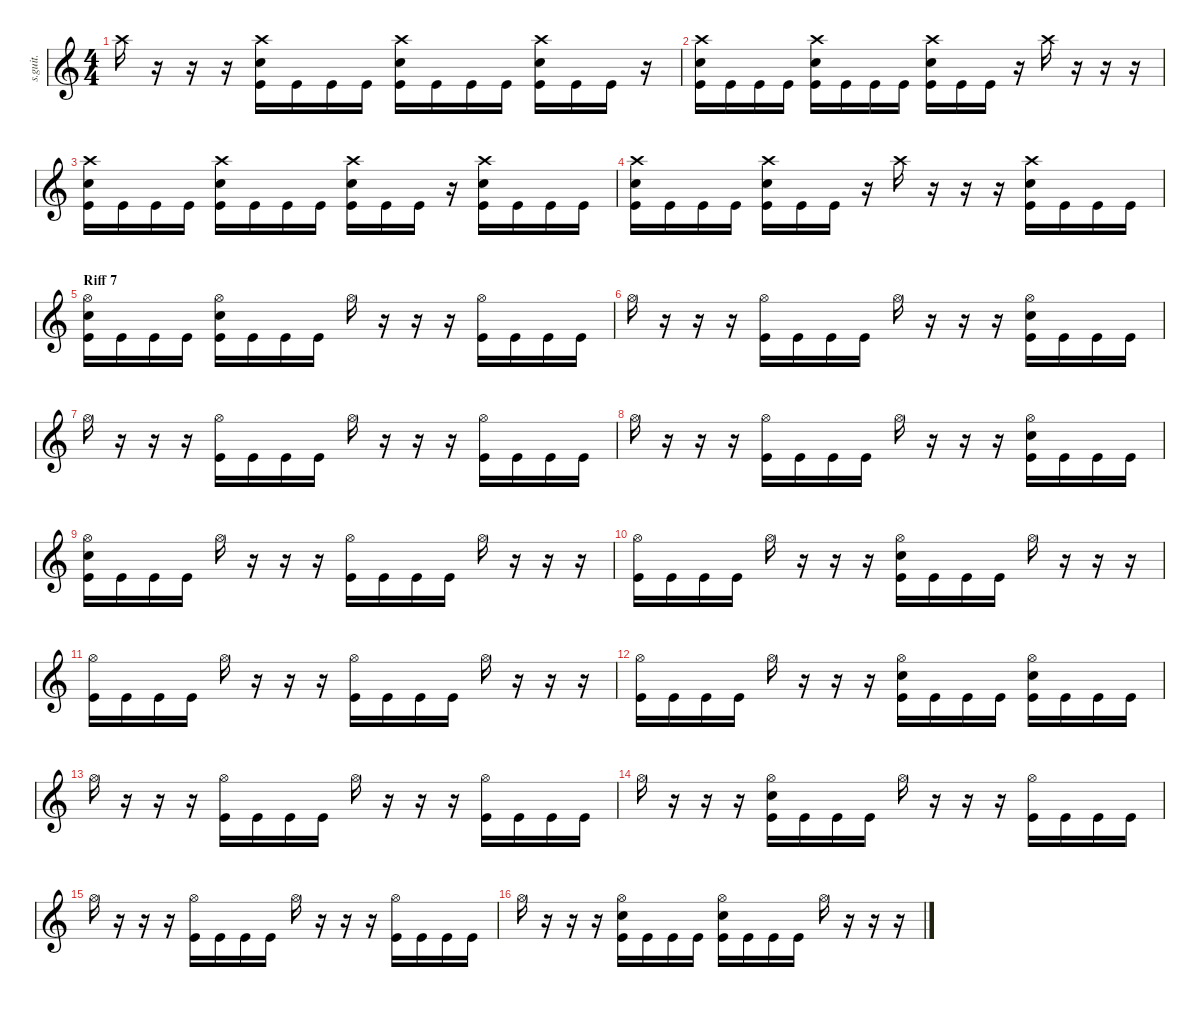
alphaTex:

\defaultSystemsLayout 4
\hideDynamics
\bracketExtendMode nobrackets
\track ("Drumkit" "s.guit.") {instrument percussion}
\staff {score}
\articulation defaults
\ts (4 4)
\tempo (133 hide)
\clef g2
\ks c "Crash high (hit)".16{lyrics (0 "") lyrics (1 "") lyrics (2 "") lyrics (3 "") lyrics (4 "") dy f}
r.16 r.16 r.16 ("Crash high (hit)" "Snare (hit) 2" "Kick (hit)").16{lyrics (0 "") lyrics (1 "") lyrics (2 "") lyrics (3 "") lyrics (4 "")} "Kick (hit)".16{lyrics (0 "") lyrics (1 "") lyrics (2 "") lyrics (3 "") lyrics (4 "")} "Kick (hit)".16{lyrics (0 "") lyrics (1 "") lyrics (2 "") lyrics (3 "") lyrics (4 "")} "Kick (hit)".16{lyrics (0 "") lyrics (1 "") lyrics (2 "") lyrics (3 "") lyrics (4 "")} ("Crash high (hit)" "Snare (hit) 2" "Kick (hit)").16{lyrics (0 "") lyrics (1 "") lyrics (2 "") lyrics (3 "") lyrics (4 "")} "Kick (hit)".16{lyrics (0 "") lyrics (1 "") lyrics (2 "") lyrics (3 "") lyrics (4 "")} "Kick (hit)".16{lyrics (0 "") lyrics (1 "") lyrics (2 "") lyrics (3 "") lyrics (4 "")} "Kick (hit)".16{lyrics (0 "") lyrics (1 "") lyrics (2 "") lyrics (3 "") lyrics (4 "")} ("Crash high (hit)" "Snare (hit) 2" "Kick (hit)").16{lyrics (0 "") lyrics (1 "") lyrics (2 "") lyrics (3 "") lyrics (4 "")} "Kick (hit)".16{lyrics (0 "") lyrics (1 "") lyrics (2 "") lyrics (3 "") lyrics (4 "")} "Kick (hit)".16{lyrics (0 "") lyrics (1 "") lyrics (2 "") lyrics (3 "") lyrics (4 "")} r.16 |
("Crash high (hit)" "Snare (hit) 2" "Kick (hit)").16{lyrics (0 "") lyrics (1 "") lyrics (2 "") lyrics (3 "") lyrics (4 "")} "Kick (hit)".16{lyrics (0 "") lyrics (1 "") lyrics (2 "") lyrics (3 "") lyrics (4 "")} "Kick (hit)".16{lyrics (0 "") lyrics (1 "") lyrics (2 "") lyrics (3 "") lyrics (4 "")} "Kick (hit)".16{lyrics (0 "") lyrics (1 "") lyrics (2 "") lyrics (3 "") lyrics (4 "")} ("Crash high (hit)" "Snare (hit) 2" "Kick (hit)").16{lyrics (0 "") lyrics (1 "") lyrics (2 "") lyrics (3 "") lyrics (4 "")} "Kick (hit)".16{lyrics (0 "") lyrics (1 "") lyrics (2 "") lyrics (3 "") lyrics (4 "")} "Kick (hit)".16{lyrics (0 "") lyrics (1 "") lyrics (2 "") lyrics (3 "") lyrics (4 "")} "Kick (hit)".16{lyrics (0 "") lyrics (1 "") lyrics (2 "") lyrics (3 "") lyrics (4 "")} ("Crash high (hit)" "Snare (hit) 2" "Kick (hit)").16{lyrics (0 "") lyrics (1 "") lyrics (2 "") lyrics (3 "") lyrics (4 "")} "Kick (hit)".16{lyrics (0 "") lyrics (1 "") lyrics (2 "") lyrics (3 "") lyrics (4 "")} "Kick (hit)".16{lyrics (0 "") lyrics (1 "") lyrics (2 "") lyrics (3 "") lyrics (4 "")} r.16 "Crash high (hit)".16{lyrics (0 "") lyrics (1 "") lyrics (2 "") lyrics (3 "") lyrics (4 "")} r.16 r.16 r.16 |
("Crash high (hit)" "Snare (hit) 2" "Kick (hit)").16{lyrics (0 "") lyrics (1 "") lyrics (2 "") lyrics (3 "") lyrics (4 "")} "Kick (hit)".16{lyrics (0 "") lyrics (1 "") lyrics (2 "") lyrics (3 "") lyrics (4 "")} "Kick (hit)".16{lyrics (0 "") lyrics (1 "") lyrics (2 "") lyrics (3 "") lyrics (4 "")} "Kick (hit)".16{lyrics (0 "") lyrics (1 "") lyrics (2 "") lyrics (3 "") lyrics (4 "")} ("Crash high (hit)" "Snare (hit) 2" "Kick (hit)").16{lyrics (0 "") lyrics (1 "") lyrics (2 "") lyrics (3 "") lyrics (4 "")} "Kick (hit)".16{lyrics (0 "") lyrics (1 "") lyrics (2 "") lyrics (3 "") lyrics (4 "")} "Kick (hit)".16{lyrics (0 "") lyrics (1 "") lyrics (2 "") lyrics (3 "") lyrics (4 "")} "Kick (hit)".16{lyrics (0 "") lyrics (1 "") lyrics (2 "") lyrics (3 "") lyrics (4 "")} ("Crash high (hit)" "Snare (hit) 2" "Kick (hit)").16{lyrics (0 "") lyrics (1 "") lyrics (2 "") lyrics (3 "") lyrics (4 "")} "Kick (hit)".16{lyrics (0 "") lyrics (1 "") lyrics (2 "") lyrics (3 "") lyrics (4 "")} "Kick (hit)".16{lyrics (0 "") lyrics (1 "") lyrics (2 "") lyrics (3 "") lyrics (4 "")} r.16 ("Crash high (hit)" "Snare (hit) 2" "Kick (hit)").16{lyrics (0 "") lyrics (1 "") lyrics (2 "") lyrics (3 "") lyrics (4 "")} "Kick (hit)".16{lyrics (0 "") lyrics (1 "") lyrics (2 "") lyrics (3 "") lyrics (4 "")} "Kick (hit)".16{lyrics (0 "") lyrics (1 "") lyrics (2 "") lyrics (3 "") lyrics (4 "")} "Kick (hit)".16{lyrics (0 "") lyrics (1 "") lyrics (2 "") lyrics (3 "") lyrics (4 "")} |
("Crash high (hit)" "Snare (hit) 2" "Kick (hit)").16{lyrics (0 "") lyrics (1 "") lyrics (2 "") lyrics (3 "") lyrics (4 "")} "Kick (hit)".16{lyrics (0 "") lyrics (1 "") lyrics (2 "") lyrics (3 "") lyrics (4 "")} "Kick (hit)".16{lyrics (0 "") lyrics (1 "") lyrics (2 "") lyrics (3 "") lyrics (4 "")} "Kick (hit)".16{lyrics (0 "") lyrics (1 "") lyrics (2 "") lyrics (3 "") lyrics (4 "")} ("Crash high (hit)" "Snare (hit) 2" "Kick (hit)").16{lyrics (0 "") lyrics (1 "") lyrics (2 "") lyrics (3 "") lyrics (4 "")} "Kick (hit)".16{lyrics (0 "") lyrics (1 "") lyrics (2 "") lyrics (3 "") lyrics (4 "")} "Kick (hit)".16{lyrics (0 "") lyrics (1 "") lyrics (2 "") lyrics (3 "") lyrics (4 "")} r.16 "Crash high (hit)".16{lyrics (0 "") lyrics (1 "") lyrics (2 "") lyrics (3 "") lyrics (4 "")} r.16 r.16 r.16 ("Crash high (hit)" "Snare (hit) 2" "Kick (hit)").16{lyrics (0 "") lyrics (1 "") lyrics (2 "") lyrics (3 "") lyrics (4 "")} "Kick (hit)".16{lyrics (0 "") lyrics (1 "") lyrics (2 "") lyrics (3 "") lyrics (4 "")} "Kick (hit)".16{lyrics (0 "") lyrics (1 "") lyrics (2 "") lyrics (3 "") lyrics (4 "")} "Kick (hit)".16{lyrics (0 "") lyrics (1 "") lyrics (2 "") lyrics (3 "") lyrics (4 "")} |
\section ("" "Riff 7")
("Hi-Hat (open)" "Snare (hit) 2" "Kick (hit)").16{lyrics (0 "") lyrics (1 "") lyrics (2 "") lyrics (3 "") lyrics (4 "")} "Kick (hit)".16{lyrics (0 "") lyrics (1 "") lyrics (2 "") lyrics (3 "") lyrics (4 "")} "Kick (hit)".16{lyrics (0 "") lyrics (1 "") lyrics (2 "") lyrics (3 "") lyrics (4 "")} "Kick (hit)".16{lyrics (0 "") lyrics (1 "") lyrics (2 "") lyrics (3 "") lyrics (4 "")} ("Hi-Hat (open)" "Snare (hit) 2" "Kick (hit)").16{lyrics (0 "") lyrics (1 "") lyrics (2 "") lyrics (3 "") lyrics (4 "")} "Kick (hit)".16{lyrics (0 "") lyrics (1 "") lyrics (2 "") lyrics (3 "") lyrics (4 "")} "Kick (hit)".16{lyrics (0 "") lyrics (1 "") lyrics (2 "") lyrics (3 "") lyrics (4 "")} "Kick (hit)".16{lyrics (0 "") lyrics (1 "") lyrics (2 "") lyrics (3 "") lyrics (4 "")} "Hi-Hat (open)".16{lyrics (0 "") lyrics (1 "") lyrics (2 "") lyrics (3 "") lyrics (4 "")} r.16 r.16 r.16 ("Hi-Hat (open)" "Kick (hit)").16{lyrics (0 "") lyrics (1 "") lyrics (2 "") lyrics (3 "") lyrics (4 "")} "Kick (hit)".16{lyrics (0 "") lyrics (1 "") lyrics (2 "") lyrics (3 "") lyrics (4 "")} "Kick (hit)".16{lyrics (0 "") lyrics (1 "") lyrics (2 "") lyrics (3 "") lyrics (4 "")} "Kick (hit)".16{lyrics (0 "") lyrics (1 "") lyrics (2 "") lyrics (3 "") lyrics (4 "")} |
"Hi-Hat (open)".16{lyrics (0 "") lyrics (1 "") lyrics (2 "") lyrics (3 "") lyrics (4 "")} r.16 r.16 r.16 ("Hi-Hat (open)" "Kick (hit)").16{lyrics (0 "") lyrics (1 "") lyrics (2 "") lyrics (3 "") lyrics (4 "")} "Kick (hit)".16{lyrics (0 "") lyrics (1 "") lyrics (2 "") lyrics (3 "") lyrics (4 "")} "Kick (hit)".16{lyrics (0 "") lyrics (1 "") lyrics (2 "") lyrics (3 "") lyrics (4 "")} "Kick (hit)".16{lyrics (0 "") lyrics (1 "") lyrics (2 "") lyrics (3 "") lyrics (4 "")} "Hi-Hat (open)".16{lyrics (0 "") lyrics (1 "") lyrics (2 "") lyrics (3 "") lyrics (4 "")} r.16 r.16 r.16 ("Hi-Hat (open)" "Snare (hit) 2" "Kick (hit)").16{lyrics (0 "") lyrics (1 "") lyrics (2 "") lyrics (3 "") lyrics (4 "")} "Kick (hit)".16{lyrics (0 "") lyrics (1 "") lyrics (2 "") lyrics (3 "") lyrics (4 "")} "Kick (hit)".16{lyrics (0 "") lyrics (1 "") lyrics (2 "") lyrics (3 "") lyrics (4 "")} "Kick (hit)".16{lyrics (0 "") lyrics (1 "") lyrics (2 "") lyrics (3 "") lyrics (4 "")} |
"Hi-Hat (open)".16{lyrics (0 "") lyrics (1 "") lyrics (2 "") lyrics (3 "") lyrics (4 "")} r.16 r.16 r.16 ("Hi-Hat (open)" "Kick (hit)").16{lyrics (0 "") lyrics (1 "") lyrics (2 "") lyrics (3 "") lyrics (4 "")} "Kick (hit)".16{lyrics (0 "") lyrics (1 "") lyrics (2 "") lyrics (3 "") lyrics (4 "")} "Kick (hit)".16{lyrics (0 "") lyrics (1 "") lyrics (2 "") lyrics (3 "") lyrics (4 "")} "Kick (hit)".16{lyrics (0 "") lyrics (1 "") lyrics (2 "") lyrics (3 "") lyrics (4 "")} "Hi-Hat (open)".16{lyrics (0 "") lyrics (1 "") lyrics (2 "") lyrics (3 "") lyrics (4 "")} r.16 r.16 r.16 ("Hi-Hat (open)" "Kick (hit)").16{lyrics (0 "") lyrics (1 "") lyrics (2 "") lyrics (3 "") lyrics (4 "")} "Kick (hit)".16{lyrics (0 "") lyrics (1 "") lyrics (2 "") lyrics (3 "") lyrics (4 "")} "Kick (hit)".16{lyrics (0 "") lyrics (1 "") lyrics (2 "") lyrics (3 "") lyrics (4 "")} "Kick (hit)".16{lyrics (0 "") lyrics (1 "") lyrics (2 "") lyrics (3 "") lyrics (4 "")} |
"Hi-Hat (open)".16{lyrics (0 "") lyrics (1 "") lyrics (2 "") lyrics (3 "") lyrics (4 "")} r.16 r.16 r.16 ("Hi-Hat (open)" "Kick (hit)").16{lyrics (0 "") lyrics (1 "") lyrics (2 "") lyrics (3 "") lyrics (4 "")} "Kick (hit)".16{lyrics (0 "") lyrics (1 "") lyrics (2 "") lyrics (3 "") lyrics (4 "")} "Kick (hit)".16{lyrics (0 "") lyrics (1 "") lyrics (2 "") lyrics (3 "") lyrics (4 "")} "Kick (hit)".16{lyrics (0 "") lyrics (1 "") lyrics (2 "") lyrics (3 "") lyrics (4 "")} "Hi-Hat (open)".16{lyrics (0 "") lyrics (1 "") lyrics (2 "") lyrics (3 "") lyrics (4 "")} r.16 r.16 r.16 ("Hi-Hat (open)" "Snare (hit) 2" "Kick (hit)").16{lyrics (0 "") lyrics (1 "") lyrics (2 "") lyrics (3 "") lyrics (4 "")} "Kick (hit)".16{lyrics (0 "") lyrics (1 "") lyrics (2 "") lyrics (3 "") lyrics (4 "")} "Kick (hit)".16{lyrics (0 "") lyrics (1 "") lyrics (2 "") lyrics (3 "") lyrics (4 "")} "Kick (hit)".16{lyrics (0 "") lyrics (1 "") lyrics (2 "") lyrics (3 "") lyrics (4 "")} |
("Hi-Hat (open)" "Snare (hit) 2" "Kick (hit)").16{lyrics (0 "") lyrics (1 "") lyrics (2 "") lyrics (3 "") lyrics (4 "")} "Kick (hit)".16{lyrics (0 "") lyrics (1 "") lyrics (2 "") lyrics (3 "") lyrics (4 "")} "Kick (hit)".16{lyrics (0 "") lyrics (1 "") lyrics (2 "") lyrics (3 "") lyrics (4 "")} "Kick (hit)".16{lyrics (0 "") lyrics (1 "") lyrics (2 "") lyrics (3 "") lyrics (4 "")} "Hi-Hat (open)".16{lyrics (0 "") lyrics (1 "") lyrics (2 "") lyrics (3 "") lyrics (4 "")} r.16 r.16 r.16 ("Hi-Hat (open)" "Kick (hit)").16{lyrics (0 "") lyrics (1 "") lyrics (2 "") lyrics (3 "") lyrics (4 "")} "Kick (hit)".16{lyrics (0 "") lyrics (1 "") lyrics (2 "") lyrics (3 "") lyrics (4 "")} "Kick (hit)".16{lyrics (0 "") lyrics (1 "") lyrics (2 "") lyrics (3 "") lyrics (4 "")} "Kick (hit)".16{lyrics (0 "") lyrics (1 "") lyrics (2 "") lyrics (3 "") lyrics (4 "")} "Hi-Hat (open)".16{lyrics (0 "") lyrics (1 "") lyrics (2 "") lyrics (3 "") lyrics (4 "")} r.16 r.16 r.16 |
("Hi-Hat (open)" "Kick (hit)").16{lyrics (0 "") lyrics (1 "") lyrics (2 "") lyrics (3 "") lyrics (4 "")} "Kick (hit)".16{lyrics (0 "") lyrics (1 "") lyrics (2 "") lyrics (3 "") lyrics (4 "")} "Kick (hit)".16{lyrics (0 "") lyrics (1 "") lyrics (2 "") lyrics (3 "") lyrics (4 "")} "Kick (hit)".16{lyrics (0 "") lyrics (1 "") lyrics (2 "") lyrics (3 "") lyrics (4 "")} "Hi-Hat (open)".16{lyrics (0 "") lyrics (1 "") lyrics (2 "") lyrics (3 "") lyrics (4 "")} r.16 r.16 r.16 ("Hi-Hat (open)" "Snare (hit) 2" "Kick (hit)").16{lyrics (0 "") lyrics (1 "") lyrics (2 "") lyrics (3 "") lyrics (4 "")} "Kick (hit)".16{lyrics (0 "") lyrics (1 "") lyrics (2 "") lyrics (3 "") lyrics (4 "")} "Kick (hit)".16{lyrics (0 "") lyrics (1 "") lyrics (2 "") lyrics (3 "") lyrics (4 "")} "Kick (hit)".16{lyrics (0 "") lyrics (1 "") lyrics (2 "") lyrics (3 "") lyrics (4 "")} "Hi-Hat (open)".16{lyrics (0 "") lyrics (1 "") lyrics (2 "") lyrics (3 "") lyrics (4 "")} r.16 r.16 r.16 |
("Hi-Hat (open)" "Kick (hit)").16{lyrics (0 "") lyrics (1 "") lyrics (2 "") lyrics (3 "") lyrics (4 "")} "Kick (hit)".16{lyrics (0 "") lyrics (1 "") lyrics (2 "") lyrics (3 "") lyrics (4 "")} "Kick (hit)".16{lyrics (0 "") lyrics (1 "") lyrics (2 "") lyrics (3 "") lyrics (4 "")} "Kick (hit)".16{lyrics (0 "") lyrics (1 "") lyrics (2 "") lyrics (3 "") lyrics (4 "")} "Hi-Hat (open)".16{lyrics (0 "") lyrics (1 "") lyrics (2 "") lyrics (3 "") lyrics (4 "")} r.16 r.16 r.16 ("Hi-Hat (open)" "Kick (hit)").16{lyrics (0 "") lyrics (1 "") lyrics (2 "") lyrics (3 "") lyrics (4 "")} "Kick (hit)".16{lyrics (0 "") lyrics (1 "") lyrics (2 "") lyrics (3 "") lyrics (4 "")} "Kick (hit)".16{lyrics (0 "") lyrics (1 "") lyrics (2 "") lyrics (3 "") lyrics (4 "")} "Kick (hit)".16{lyrics (0 "") lyrics (1 "") lyrics (2 "") lyrics (3 "") lyrics (4 "")} "Hi-Hat (open)".16{lyrics (0 "") lyrics (1 "") lyrics (2 "") lyrics (3 "") lyrics (4 "")} r.16 r.16 r.16 |
("Hi-Hat (open)" "Kick (hit)").16{lyrics (0 "") lyrics (1 "") lyrics (2 "") lyrics (3 "") lyrics (4 "")} "Kick (hit)".16{lyrics (0 "") lyrics (1 "") lyrics (2 "") lyrics (3 "") lyrics (4 "")} "Kick (hit)".16{lyrics (0 "") lyrics (1 "") lyrics (2 "") lyrics (3 "") lyrics (4 "")} "Kick (hit)".16{lyrics (0 "") lyrics (1 "") lyrics (2 "") lyrics (3 "") lyrics (4 "")} "Hi-Hat (open)".16{lyrics (0 "") lyrics (1 "") lyrics (2 "") lyrics (3 "") lyrics (4 "")} r.16 r.16 r.16 ("Hi-Hat (open)" "Snare (hit) 2" "Kick (hit)").16{lyrics (0 "") lyrics (1 "") lyrics (2 "") lyrics (3 "") lyrics (4 "")} "Kick (hit)".16{lyrics (0 "") lyrics (1 "") lyrics (2 "") lyrics (3 "") lyrics (4 "")} "Kick (hit)".16{lyrics (0 "") lyrics (1 "") lyrics (2 "") lyrics (3 "") lyrics (4 "")} "Kick (hit)".16{lyrics (0 "") lyrics (1 "") lyrics (2 "") lyrics (3 "") lyrics (4 "")} ("Hi-Hat (open)" "Snare (hit) 2" "Kick (hit)").16{lyrics (0 "") lyrics (1 "") lyrics (2 "") lyrics (3 "") lyrics (4 "")} "Kick (hit)".16{lyrics (0 "") lyrics (1 "") lyrics (2 "") lyrics (3 "") lyrics (4 "")} "Kick (hit)".16{lyrics (0 "") lyrics (1 "") lyrics (2 "") lyrics (3 "") lyrics (4 "")} "Kick (hit)".16{lyrics (0 "") lyrics (1 "") lyrics (2 "") lyrics (3 "") lyrics (4 "")} |
"Hi-Hat (open)".16{lyrics (0 "") lyrics (1 "") lyrics (2 "") lyrics (3 "") lyrics (4 "")} r.16 r.16 r.16 ("Hi-Hat (open)" "Kick (hit)").16{lyrics (0 "") lyrics (1 "") lyrics (2 "") lyrics (3 "") lyrics (4 "")} "Kick (hit)".16{lyrics (0 "") lyrics (1 "") lyrics (2 "") lyrics (3 "") lyrics (4 "")} "Kick (hit)".16{lyrics (0 "") lyrics (1 "") lyrics (2 "") lyrics (3 "") lyrics (4 "")} "Kick (hit)".16{lyrics (0 "") lyrics (1 "") lyrics (2 "") lyrics (3 "") lyrics (4 "")} "Hi-Hat (open)".16{lyrics (0 "") lyrics (1 "") lyrics (2 "") lyrics (3 "") lyrics (4 "")} r.16 r.16 r.16 ("Hi-Hat (open)" "Kick (hit)").16{lyrics (0 "") lyrics (1 "") lyrics (2 "") lyrics (3 "") lyrics (4 "")} "Kick (hit)".16{lyrics (0 "") lyrics (1 "") lyrics (2 "") lyrics (3 "") lyrics (4 "")} "Kick (hit)".16{lyrics (0 "") lyrics (1 "") lyrics (2 "") lyrics (3 "") lyrics (4 "")} "Kick (hit)".16{lyrics (0 "") lyrics (1 "") lyrics (2 "") lyrics (3 "") lyrics (4 "")} |
"Hi-Hat (open)".16{lyrics (0 "") lyrics (1 "") lyrics (2 "") lyrics (3 "") lyrics (4 "")} r.16 r.16 r.16 ("Hi-Hat (open)" "Snare (hit) 2" "Kick (hit)").16{lyrics (0 "") lyrics (1 "") lyrics (2 "") lyrics (3 "") lyrics (4 "")} "Kick (hit)".16{lyrics (0 "") lyrics (1 "") lyrics (2 "") lyrics (3 "") lyrics (4 "")} "Kick (hit)".16{lyrics (0 "") lyrics (1 "") lyrics (2 "") lyrics (3 "") lyrics (4 "")} "Kick (hit)".16{lyrics (0 "") lyrics (1 "") lyrics (2 "") lyrics (3 "") lyrics (4 "")} "Hi-Hat (open)".16{lyrics (0 "") lyrics (1 "") lyrics (2 "") lyrics (3 "") lyrics (4 "")} r.16 r.16 r.16 ("Hi-Hat (open)" "Kick (hit)").16{lyrics (0 "") lyrics (1 "") lyrics (2 "") lyrics (3 "") lyrics (4 "")} "Kick (hit)".16{lyrics (0 "") lyrics (1 "") lyrics (2 "") lyrics (3 "") lyrics (4 "")} "Kick (hit)".16{lyrics (0 "") lyrics (1 "") lyrics (2 "") lyrics (3 "") lyrics (4 "")} "Kick (hit)".16{lyrics (0 "") lyrics (1 "") lyrics (2 "") lyrics (3 "") lyrics (4 "")} |
"Hi-Hat (open)".16{lyrics (0 "") lyrics (1 "") lyrics (2 "") lyrics (3 "") lyrics (4 "")} r.16 r.16 r.16 ("Hi-Hat (open)" "Kick (hit)").16{lyrics (0 "") lyrics (1 "") lyrics (2 "") lyrics (3 "") lyrics (4 "")} "Kick (hit)".16{lyrics (0 "") lyrics (1 "") lyrics (2 "") lyrics (3 "") lyrics (4 "")} "Kick (hit)".16{lyrics (0 "") lyrics (1 "") lyrics (2 "") lyrics (3 "") lyrics (4 "")} "Kick (hit)".16{lyrics (0 "") lyrics (1 "") lyrics (2 "") lyrics (3 "") lyrics (4 "")} "Hi-Hat (open)".16{lyrics (0 "") lyrics (1 "") lyrics (2 "") lyrics (3 "") lyrics (4 "")} r.16 r.16 r.16 ("Hi-Hat (open)" "Kick (hit)").16{lyrics (0 "") lyrics (1 "") lyrics (2 "") lyrics (3 "") lyrics (4 "")} "Kick (hit)".16{lyrics (0 "") lyrics (1 "") lyrics (2 "") lyrics (3 "") lyrics (4 "")} "Kick (hit)".16{lyrics (0 "") lyrics (1 "") lyrics (2 "") lyrics (3 "") lyrics (4 "")} "Kick (hit)".16{lyrics (0 "") lyrics (1 "") lyrics (2 "") lyrics (3 "") lyrics (4 "")} |
"Hi-Hat (open)".16{lyrics (0 "") lyrics (1 "") lyrics (2 "") lyrics (3 "") lyrics (4 "")} r.16 r.16 r.16 ("Hi-Hat (open)" "Snare (hit) 2" "Kick (hit)").16{lyrics (0 "") lyrics (1 "") lyrics (2 "") lyrics (3 "") lyrics (4 "")} "Kick (hit)".16{lyrics (0 "") lyrics (1 "") lyrics (2 "") lyrics (3 "") lyrics (4 "")} "Kick (hit)".16{lyrics (0 "") lyrics (1 "") lyrics (2 "") lyrics (3 "") lyrics (4 "")} "Kick (hit)".16{lyrics (0 "") lyrics (1 "") lyrics (2 "") lyrics (3 "") lyrics (4 "")} ("Hi-Hat (open)" "Snare (hit) 2" "Kick (hit)").16{lyrics (0 "") lyrics (1 "") lyrics (2 "") lyrics (3 "") lyrics (4 "")} "Kick (hit)".16{lyrics (0 "") lyrics (1 "") lyrics (2 "") lyrics (3 "") lyrics (4 "")} "Kick (hit)".16{lyrics (0 "") lyrics (1 "") lyrics (2 "") lyrics (3 "") lyrics (4 "")} "Kick (hit)".16{lyrics (0 "") lyrics (1 "") lyrics (2 "") lyrics (3 "") lyrics (4 "")} "Hi-Hat (open)".16{lyrics (0 "") lyrics (1 "") lyrics (2 "") lyrics (3 "") lyrics (4 "")} r.16 r.16 r.16
